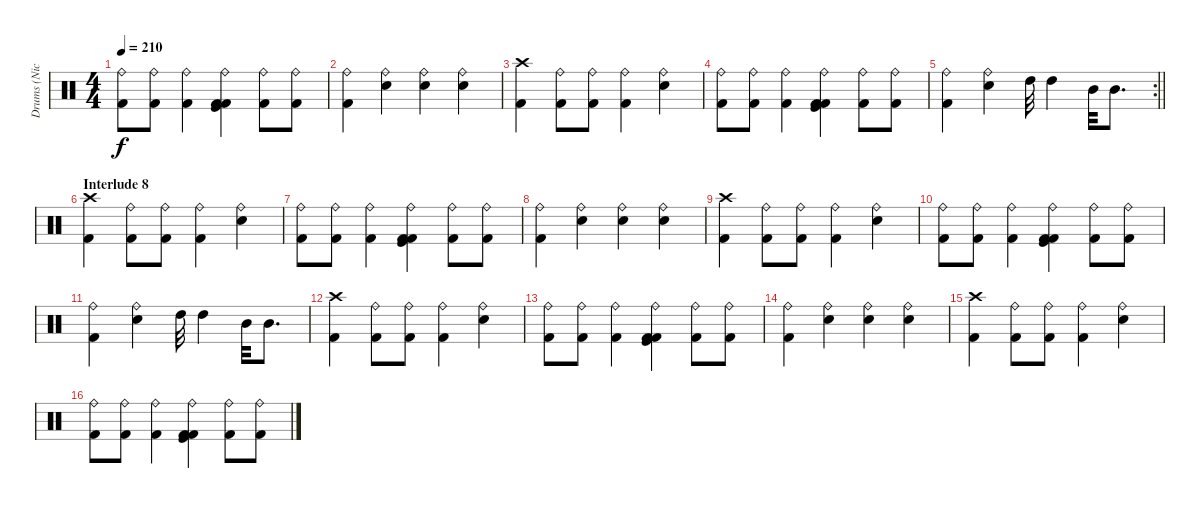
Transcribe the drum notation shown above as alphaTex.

\track ("Drums (Nicko McBrain)" "Drums (Nic") {instrument percussion}
\staff {score}
\articulation defaults
\ts (4 4)
\tempo 210
\clef neutral
\ks c
("Ride (bell)" "Kick (hit) 2").8{dy f} ("Ride (bell)" "Kick (hit) 2").8 ("Ride (bell)" "Kick (hit) 2").4 ("Ride (bell)" "Kick (hit) 2" "Kick (hit)" "Kick (hit) 2").4 ("Ride (bell)" "Kick (hit) 2").8 ("Ride (bell)" "Kick (hit) 2").8 |
("Ride (bell)" "Kick (hit) 2").4 ("Ride (bell)" "Electric Snare (hit)").4 ("Ride (bell)" "Electric Snare (hit)").4 ("Ride (bell)" "Electric Snare (hit)").4 |
("Crash high (hit)" "Kick (hit) 2").4 ("Ride (bell)" "Kick (hit) 2").8 ("Ride (bell)" "Kick (hit) 2").8 ("Ride (bell)" "Kick (hit) 2").4 ("Ride (bell)" "Electric Snare (hit)").4 |
("Ride (bell)" "Kick (hit) 2").8 ("Ride (bell)" "Kick (hit) 2").8 ("Ride (bell)" "Kick (hit) 2").4 ("Ride (bell)" "Kick (hit) 2" "Kick (hit)" "Kick (hit) 2").4 ("Ride (bell)" "Kick (hit) 2").8 ("Ride (bell)" "Kick (hit) 2").8 |
\rc 2
\barLineRight lightlight
("Ride (bell)" "Kick (hit) 2").4 ("Ride (bell)" "Electric Snare (hit)").4 "High Tom (hit)".32 "High Tom (hit)".4 "Mid Tom (hit)".32 "Mid Tom (hit)".8{d} |
\section ("" "Interlude 8")
("Crash high (hit)" "Kick (hit) 2").4 ("Ride (bell)" "Kick (hit) 2").8 ("Ride (bell)" "Kick (hit) 2").8 ("Ride (bell)" "Kick (hit) 2").4 ("Ride (bell)" "Electric Snare (hit)").4 |
("Ride (bell)" "Kick (hit) 2").8 ("Ride (bell)" "Kick (hit) 2").8 ("Ride (bell)" "Kick (hit) 2").4 ("Ride (bell)" "Kick (hit) 2" "Kick (hit)" "Kick (hit) 2").4 ("Ride (bell)" "Kick (hit) 2").8 ("Ride (bell)" "Kick (hit) 2").8 |
("Ride (bell)" "Kick (hit) 2").4 ("Ride (bell)" "Electric Snare (hit)").4 ("Ride (bell)" "Electric Snare (hit)").4 ("Ride (bell)" "Electric Snare (hit)").4 |
("Crash high (hit)" "Kick (hit) 2").4 ("Ride (bell)" "Kick (hit) 2").8 ("Ride (bell)" "Kick (hit) 2").8 ("Ride (bell)" "Kick (hit) 2").4 ("Ride (bell)" "Electric Snare (hit)").4 |
("Ride (bell)" "Kick (hit) 2").8 ("Ride (bell)" "Kick (hit) 2").8 ("Ride (bell)" "Kick (hit) 2").4 ("Ride (bell)" "Kick (hit) 2" "Kick (hit)" "Kick (hit) 2").4 ("Ride (bell)" "Kick (hit) 2").8 ("Ride (bell)" "Kick (hit) 2").8 |
("Ride (bell)" "Kick (hit) 2").4 ("Ride (bell)" "Electric Snare (hit)").4 "High Tom (hit)".32 "High Tom (hit)".4 "Mid Tom (hit)".32 "Mid Tom (hit)".8{d} |
("Crash high (hit)" "Kick (hit) 2").4 ("Ride (bell)" "Kick (hit) 2").8 ("Ride (bell)" "Kick (hit) 2").8 ("Ride (bell)" "Kick (hit) 2").4 ("Ride (bell)" "Electric Snare (hit)").4 |
("Ride (bell)" "Kick (hit) 2").8 ("Ride (bell)" "Kick (hit) 2").8 ("Ride (bell)" "Kick (hit) 2").4 ("Ride (bell)" "Kick (hit) 2" "Kick (hit)" "Kick (hit) 2").4 ("Ride (bell)" "Kick (hit) 2").8 ("Ride (bell)" "Kick (hit) 2").8 |
("Ride (bell)" "Kick (hit) 2").4 ("Ride (bell)" "Electric Snare (hit)").4 ("Ride (bell)" "Electric Snare (hit)").4 ("Ride (bell)" "Electric Snare (hit)").4 |
("Crash high (hit)" "Kick (hit) 2").4 ("Ride (bell)" "Kick (hit) 2").8 ("Ride (bell)" "Kick (hit) 2").8 ("Ride (bell)" "Kick (hit) 2").4 ("Ride (bell)" "Electric Snare (hit)").4 |
("Ride (bell)" "Kick (hit) 2").8 ("Ride (bell)" "Kick (hit) 2").8 ("Ride (bell)" "Kick (hit) 2").4 ("Ride (bell)" "Kick (hit) 2" "Kick (hit)" "Kick (hit) 2").4 ("Ride (bell)" "Kick (hit) 2").8 ("Ride (bell)" "Kick (hit) 2").8
